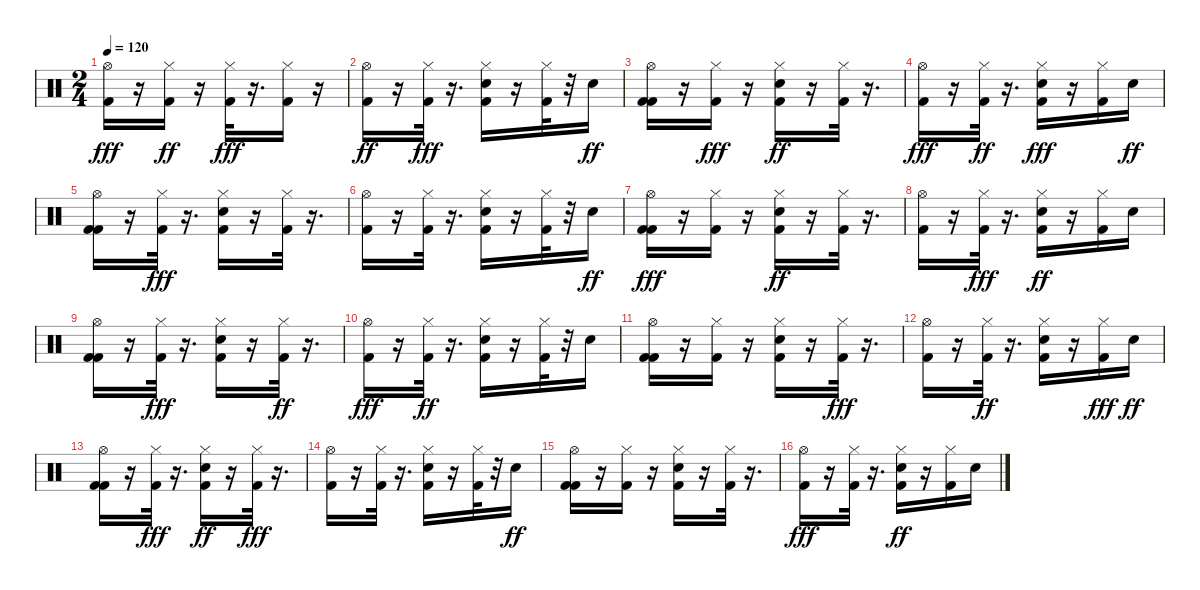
\track "" {instrument percussion}
\staff {score}
\articulation defaults
\ts (2 4)
\tempo 120
\clef neutral
\ks c
("Kick (hit) 2" "Hi-Hat (open)").16{dy fff} r.16 ("Hi-Hat (closed)" "Kick (hit) 2").16{dy ff} r.16 ("Kick (hit) 2" "Hi-Hat (closed)").32{dy fff} r.16{d} ("Kick (hit) 2" "Hi-Hat (closed)").16 r.16 |
("Hi-Hat (open)" "Kick (hit) 2").16{dy ff} r.16 ("Kick (hit) 2" "Hi-Hat (closed)").32{dy fff} r.16{d} ("Kick (hit) 2" "Snare (hit) 2" "Hi-Hat (closed)").16 r.16 ("Kick (hit) 2" "Hi-Hat (closed)").32 r.32 "Snare (hit) 2".16{dy ff} |
("Hi-Hat (open)" "Kick (hit) 2" "Kick (hit) 2").16 r.16 ("Kick (hit) 2" "Hi-Hat (closed)").16{dy fff} r.16 ("Kick (hit) 2" "Hi-Hat (closed)" "Snare (hit) 2").16{dy ff} r.16 ("Hi-Hat (closed)" "Kick (hit) 2").32 r.16{d} |
("Kick (hit) 2" "Hi-Hat (open)").16{dy fff} r.16 ("Hi-Hat (closed)" "Kick (hit) 2").32{dy ff} r.16{d} ("Kick (hit) 2" "Snare (hit) 2" "Hi-Hat (closed)").16{dy fff} r.16 ("Kick (hit) 2" "Hi-Hat (closed)").16 "Snare (hit) 2".16{dy ff} |
("Kick (hit) 2" "Hi-Hat (open)" "Kick (hit) 2").16 r.16 ("Kick (hit) 2" "Hi-Hat (closed)").32{dy fff} r.16{d} ("Snare (hit) 2" "Kick (hit) 2" "Hi-Hat (closed)").16 r.16 ("Kick (hit) 2" "Hi-Hat (closed)").32 r.16{d} |
("Kick (hit) 2" "Hi-Hat (open)").16 r.16 ("Kick (hit) 2" "Hi-Hat (closed)").32 r.16{d} ("Snare (hit) 2" "Kick (hit) 2" "Hi-Hat (closed)").16 r.16 ("Kick (hit) 2" "Hi-Hat (closed)").32 r.32 "Snare (hit) 2".16{dy ff} |
("Kick (hit) 2" "Kick (hit) 2" "Hi-Hat (open)").16{dy fff} r.16 ("Kick (hit) 2" "Hi-Hat (closed)").16 r.16 ("Kick (hit) 2" "Hi-Hat (closed)" "Snare (hit) 2").16{dy ff} r.16 ("Hi-Hat (closed)" "Kick (hit) 2").32 r.16{d} |
("Hi-Hat (open)" "Kick (hit) 2").16 r.16 ("Kick (hit) 2" "Hi-Hat (closed)").32{dy fff} r.16{d} ("Kick (hit) 2" "Hi-Hat (closed)" "Snare (hit) 2").16{dy ff} r.16 ("Hi-Hat (closed)" "Kick (hit) 2").16 "Snare (hit) 2".16 |
("Hi-Hat (open)" "Kick (hit) 2" "Kick (hit) 2").16 r.16 ("Kick (hit) 2" "Hi-Hat (closed)").32{dy fff} r.16{d} ("Kick (hit) 2" "Snare (hit) 2" "Hi-Hat (closed)").16 r.16 ("Hi-Hat (closed)" "Kick (hit) 2").32{dy ff} r.16{d} |
("Kick (hit) 2" "Hi-Hat (open)").16{dy fff} r.16 ("Hi-Hat (closed)" "Kick (hit) 2").32{dy ff} r.16{d} ("Snare (hit) 2" "Hi-Hat (closed)" "Kick (hit) 2").16 r.16 ("Hi-Hat (closed)" "Kick (hit) 2").32 r.32 "Snare (hit) 2".16 |
("Kick (hit) 2" "Hi-Hat (open)" "Kick (hit) 2").16 r.16 ("Hi-Hat (closed)" "Kick (hit) 2").16 r.16 ("Hi-Hat (closed)" "Snare (hit) 2" "Kick (hit) 2").16 r.16 ("Kick (hit) 2" "Hi-Hat (closed)").32{dy fff} r.16{d} |
("Kick (hit) 2" "Hi-Hat (open)").16 r.16 ("Hi-Hat (closed)" "Kick (hit) 2").32{dy ff} r.16{d} ("Hi-Hat (closed)" "Kick (hit) 2" "Snare (hit) 2").16 r.16 ("Kick (hit) 2" "Hi-Hat (closed)").16{dy fff} "Snare (hit) 2".16{dy ff} |
("Hi-Hat (open)" "Kick (hit) 2" "Kick (hit) 2").16 r.16 ("Kick (hit) 2" "Hi-Hat (closed)").32{dy fff} r.16{d} ("Hi-Hat (closed)" "Kick (hit) 2" "Snare (hit) 2").16{dy ff} r.16 ("Kick (hit) 2" "Hi-Hat (closed)").32{dy fff} r.16{d} |
("Kick (hit) 2" "Hi-Hat (open)").16 r.16 ("Kick (hit) 2" "Hi-Hat (closed)").32 r.16{d} ("Snare (hit) 2" "Kick (hit) 2" "Hi-Hat (closed)").16 r.16 ("Kick (hit) 2" "Hi-Hat (closed)").32 r.32 "Snare (hit) 2".16{dy ff} |
("Kick (hit) 2" "Hi-Hat (open)" "Kick (hit) 2").16 r.16 ("Hi-Hat (closed)" "Kick (hit) 2").16 r.16 ("Hi-Hat (closed)" "Snare (hit) 2" "Kick (hit) 2").16 r.16 ("Hi-Hat (closed)" "Kick (hit) 2").32 r.16{d} |
("Kick (hit) 2" "Hi-Hat (open)").16{dy fff} r.16 ("Kick (hit) 2" "Hi-Hat (closed)").32 r.16{d} ("Snare (hit) 2" "Hi-Hat (closed)" "Kick (hit) 2").16{dy ff} r.16 ("Hi-Hat (closed)" "Kick (hit) 2").16 "Snare (hit) 2".16
